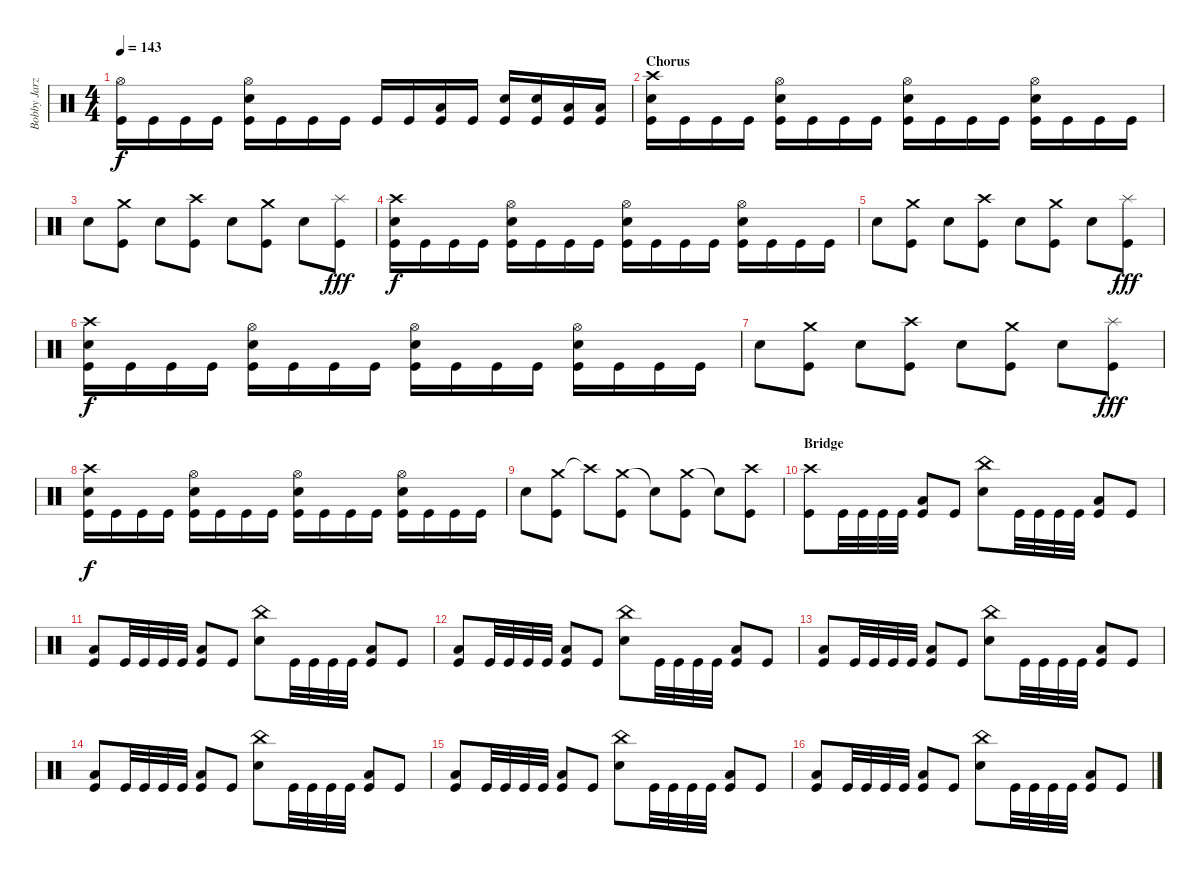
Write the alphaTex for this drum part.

\track ("Bobby Jarzombek" "Bobby Jarz") {instrument percussion}
\staff {score}
\articulation defaults
\ts (4 4)
\tempo 143
\clef neutral
\ks c
("Hi-Hat (open)" "Kick (hit)").16{dy f} "Kick (hit)".16 "Kick (hit)".16 "Kick (hit)".16 ("Hi-Hat (open)" "Electric Snare (hit)" "Kick (hit)").16 "Kick (hit)".16 "Kick (hit)".16 "Kick (hit)".16 "Kick (hit)".16 "Kick (hit)".16 ("Low Tom (hit)" "Kick (hit)").16 "Kick (hit)".16 ("Electric Snare (hit)" "Kick (hit)").16 ("Electric Snare (hit)" "Kick (hit)").16 ("Low Tom (hit)" "Kick (hit)").16 ("Low Tom (hit)" "Kick (hit)").16 |
\section ("" "Chorus")
("Crash high (hit)" "Electric Snare (hit)" "Kick (hit)").16 "Kick (hit)".16 "Kick (hit)".16 "Kick (hit)".16 ("Hi-Hat (open)" "Electric Snare (hit)" "Kick (hit)").16 "Kick (hit)".16 "Kick (hit)".16 "Kick (hit)".16 ("Hi-Hat (open)" "Electric Snare (hit)" "Kick (hit)").16 "Kick (hit)".16 "Kick (hit)".16 "Kick (hit)".16 ("Hi-Hat (open)" "Electric Snare (hit)" "Kick (hit)").16 "Kick (hit)".16 "Kick (hit)".16 "Kick (hit)".16 |
"Electric Snare (hit)".8 ("Crash medium (hit)" "Kick (hit)").8 "Electric Snare (hit)".8 ("Crash high (hit)" "Kick (hit)").8 "Electric Snare (hit)".8 ("Crash medium (hit)" "Kick (hit)").8 "Electric Snare (hit)".8 ("Splash (hit)" "Kick (hit)").8{dy fff} |
("Crash high (hit)" "Electric Snare (hit)" "Kick (hit)").16{dy f} "Kick (hit)".16 "Kick (hit)".16 "Kick (hit)".16 ("Hi-Hat (open)" "Electric Snare (hit)" "Kick (hit)").16 "Kick (hit)".16 "Kick (hit)".16 "Kick (hit)".16 ("Hi-Hat (open)" "Electric Snare (hit)" "Kick (hit)").16 "Kick (hit)".16 "Kick (hit)".16 "Kick (hit)".16 ("Hi-Hat (open)" "Electric Snare (hit)" "Kick (hit)").16 "Kick (hit)".16 "Kick (hit)".16 "Kick (hit)".16 |
"Electric Snare (hit)".8 ("Crash medium (hit)" "Kick (hit)").8 "Electric Snare (hit)".8 ("Crash high (hit)" "Kick (hit)").8 "Electric Snare (hit)".8 ("Crash medium (hit)" "Kick (hit)").8 "Electric Snare (hit)".8 ("Splash (hit)" "Kick (hit)").8{dy fff} |
("Crash high (hit)" "Electric Snare (hit)" "Kick (hit)").16{dy f} "Kick (hit)".16 "Kick (hit)".16 "Kick (hit)".16 ("Hi-Hat (open)" "Electric Snare (hit)" "Kick (hit)").16 "Kick (hit)".16 "Kick (hit)".16 "Kick (hit)".16 ("Hi-Hat (open)" "Electric Snare (hit)" "Kick (hit)").16 "Kick (hit)".16 "Kick (hit)".16 "Kick (hit)".16 ("Hi-Hat (open)" "Electric Snare (hit)" "Kick (hit)").16 "Kick (hit)".16 "Kick (hit)".16 "Kick (hit)".16 |
"Electric Snare (hit)".8 ("Crash medium (hit)" "Kick (hit)").8 "Electric Snare (hit)".8 ("Crash high (hit)" "Kick (hit)").8 "Electric Snare (hit)".8 ("Crash medium (hit)" "Kick (hit)").8 "Electric Snare (hit)".8 ("Splash (hit)" "Kick (hit)").8{dy fff} |
("Crash high (hit)" "Electric Snare (hit)" "Kick (hit)").16{dy f} "Kick (hit)".16 "Kick (hit)".16 "Kick (hit)".16 ("Hi-Hat (open)" "Electric Snare (hit)" "Kick (hit)").16 "Kick (hit)".16 "Kick (hit)".16 "Kick (hit)".16 ("Hi-Hat (open)" "Electric Snare (hit)" "Kick (hit)").16 "Kick (hit)".16 "Kick (hit)".16 "Kick (hit)".16 ("Hi-Hat (open)" "Electric Snare (hit)" "Kick (hit)").16 "Kick (hit)".16 "Kick (hit)".16 "Kick (hit)".16 |
"Electric Snare (hit)".8 ("Crash medium (hit)" "Kick (hit)").8 "Crash high (hit)"{t}.8{volume 0} ("Crash medium (hit)" "Kick (hit)").8{volume 13} "Snare (hit)"{t}.8{volume 0} ("Crash medium (hit)" "Kick (hit)").8{volume 13} "Snare (hit)"{t}.8{volume 0} ("Crash high (hit)" "Kick (hit)").8{volume 13} |
\section ("" "Bridge")
("Crash high (hit)" "Kick (hit)").8 "Kick (hit)".32 "Kick (hit)".32 "Kick (hit)".32 "Kick (hit)".32 ("Low Tom (hit)" "Kick (hit)").8 "Kick (hit)".8 ("China (hit)" "Electric Snare (hit)").8 "Kick (hit)".32 "Kick (hit)".32 "Kick (hit)".32 "Kick (hit)".32 ("Low Tom (hit)" "Kick (hit)").8 "Kick (hit)".8 |
("Low Tom (hit)" "Kick (hit)").8 "Kick (hit)".32 "Kick (hit)".32 "Kick (hit)".32 "Kick (hit)".32 ("Low Tom (hit)" "Kick (hit)").8 "Kick (hit)".8 ("China (hit)" "Electric Snare (hit)").8 "Kick (hit)".32 "Kick (hit)".32 "Kick (hit)".32 "Kick (hit)".32 ("Low Tom (hit)" "Kick (hit)").8 "Kick (hit)".8 |
("Low Tom (hit)" "Kick (hit)").8 "Kick (hit)".32 "Kick (hit)".32 "Kick (hit)".32 "Kick (hit)".32 ("Low Tom (hit)" "Kick (hit)").8 "Kick (hit)".8 ("China (hit)" "Electric Snare (hit)").8 "Kick (hit)".32 "Kick (hit)".32 "Kick (hit)".32 "Kick (hit)".32 ("Low Tom (hit)" "Kick (hit)").8 "Kick (hit)".8 |
("Low Tom (hit)" "Kick (hit)").8 "Kick (hit)".32 "Kick (hit)".32 "Kick (hit)".32 "Kick (hit)".32 ("Low Tom (hit)" "Kick (hit)").8 "Kick (hit)".8 ("China (hit)" "Electric Snare (hit)").8 "Kick (hit)".32 "Kick (hit)".32 "Kick (hit)".32 "Kick (hit)".32 ("Low Tom (hit)" "Kick (hit)").8 "Kick (hit)".8 |
("Low Tom (hit)" "Kick (hit)").8 "Kick (hit)".32 "Kick (hit)".32 "Kick (hit)".32 "Kick (hit)".32 ("Low Tom (hit)" "Kick (hit)").8 "Kick (hit)".8 ("China (hit)" "Electric Snare (hit)").8 "Kick (hit)".32 "Kick (hit)".32 "Kick (hit)".32 "Kick (hit)".32 ("Low Tom (hit)" "Kick (hit)").8 "Kick (hit)".8 |
("Low Tom (hit)" "Kick (hit)").8 "Kick (hit)".32 "Kick (hit)".32 "Kick (hit)".32 "Kick (hit)".32 ("Low Tom (hit)" "Kick (hit)").8 "Kick (hit)".8 ("China (hit)" "Electric Snare (hit)").8 "Kick (hit)".32 "Kick (hit)".32 "Kick (hit)".32 "Kick (hit)".32 ("Low Tom (hit)" "Kick (hit)").8 "Kick (hit)".8 |
("Low Tom (hit)" "Kick (hit)").8 "Kick (hit)".32 "Kick (hit)".32 "Kick (hit)".32 "Kick (hit)".32 ("Low Tom (hit)" "Kick (hit)").8 "Kick (hit)".8 ("China (hit)" "Electric Snare (hit)").8 "Kick (hit)".32 "Kick (hit)".32 "Kick (hit)".32 "Kick (hit)".32 ("Low Tom (hit)" "Kick (hit)").8 "Kick (hit)".8
